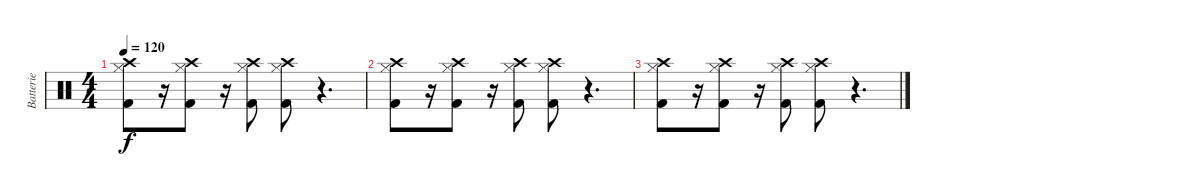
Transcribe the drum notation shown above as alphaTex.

\track ("Batterie" "Batterie") {instrument percussion}
\staff {score}
\articulation defaults
\ts (4 4)
\tempo 120
\clef neutral
\ks c
("Hi-Hat (closed)" "Crash high (hit)" "Kick (hit) 2").8{dy f} r.16 ("Hi-Hat (closed)" "Crash high (hit)" "Kick (hit) 2").8 r.16 ("Hi-Hat (closed)" "Crash high (hit)" "Kick (hit) 2").8 ("Hi-Hat (closed)" "Crash high (hit)" "Kick (hit) 2").8 r.4{d} |
("Hi-Hat (closed)" "Crash high (hit)" "Kick (hit) 2").8 r.16 ("Hi-Hat (closed)" "Crash high (hit)" "Kick (hit) 2").8 r.16 ("Hi-Hat (closed)" "Crash high (hit)" "Kick (hit) 2").8 ("Hi-Hat (closed)" "Crash high (hit)" "Kick (hit) 2").8 r.4{d} |
("Hi-Hat (closed)" "Crash high (hit)" "Kick (hit) 2").8 r.16 ("Hi-Hat (closed)" "Crash high (hit)" "Kick (hit) 2").8 r.16 ("Hi-Hat (closed)" "Crash high (hit)" "Kick (hit) 2").8 ("Hi-Hat (closed)" "Crash high (hit)" "Kick (hit) 2").8 r.4{d}
